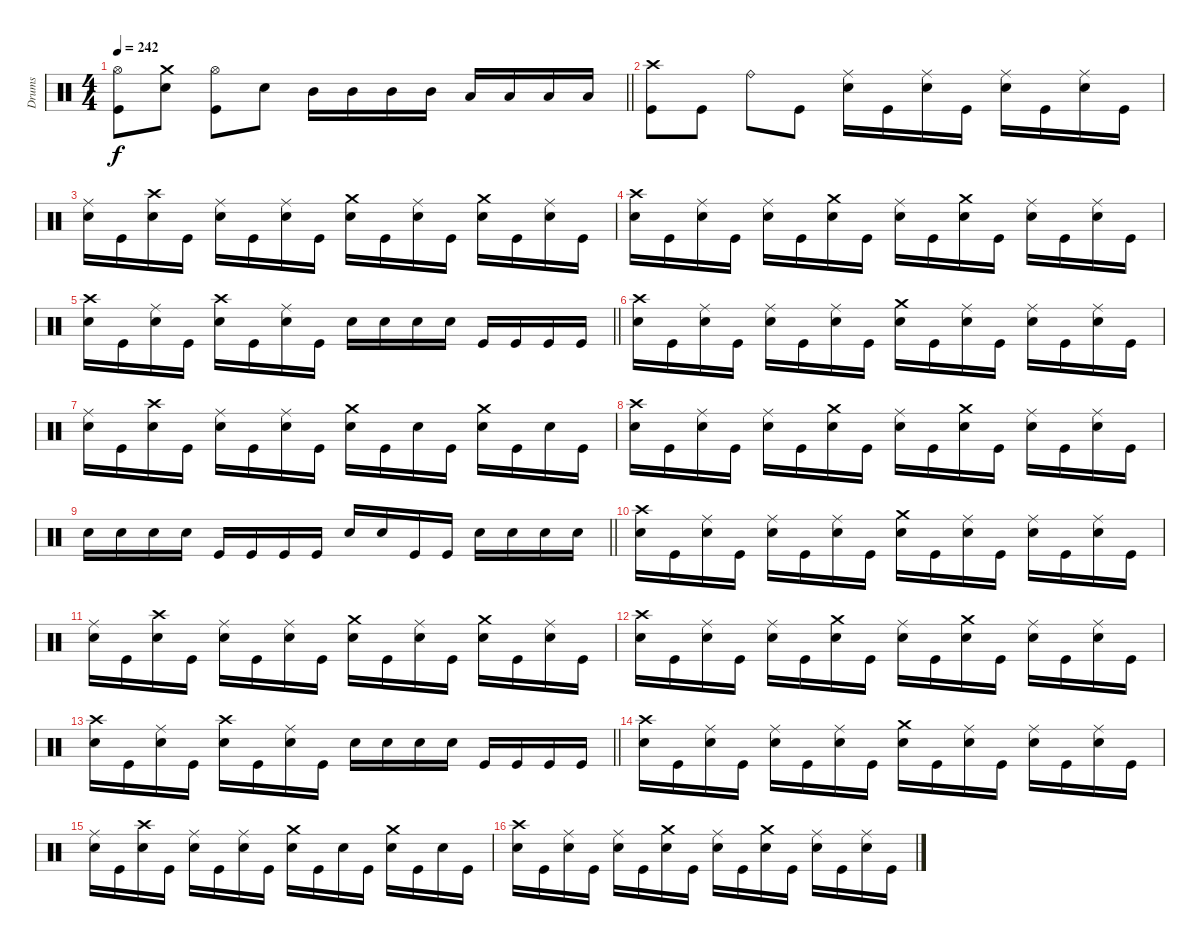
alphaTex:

\track ("Drums" "Drums") {instrument percussion}
\staff
\articulation defaults
\ts (4 4)
\tempo 242
\clef neutral
\barLineRight lightlight
\ks c
("Hi-Hat (open)" "Kick (hit)").8{dy f} ("Crash medium (hit)" "Electric Snare (hit)").8 ("Hi-Hat (open)" "Kick (hit)").8 "Electric Snare (hit)".8 "Mid Tom (hit)".16 "Mid Tom (hit)".16 "Mid Tom (hit)".16 "Mid Tom (hit)".16 "Low Tom (hit)".16 "Low Tom (hit)".16 "Low Tom (hit)".16 "Low Tom (hit)".16 |
\section ("" "")
("Crash high (hit)" "Kick (hit)").8 "Kick (hit)".8 "Ride (bell)".8 "Kick (hit)".8 ("Ride (middle)" "Electric Snare (hit)").16 "Kick (hit)".16 ("Ride (middle)" "Electric Snare (hit)").16 "Kick (hit)".16 ("Ride (middle)" "Electric Snare (hit)").16 "Kick (hit)".16 ("Ride (middle)" "Electric Snare (hit)").16 "Kick (hit)".16 |
("Ride (middle)" "Electric Snare (hit)").16 "Kick (hit)".16 ("Crash high (hit)" "Electric Snare (hit)").16 "Kick (hit)".16 ("Ride (middle)" "Electric Snare (hit)").16 "Kick (hit)".16 ("Ride (middle)" "Electric Snare (hit)").16 "Kick (hit)".16 ("Crash medium (hit)" "Electric Snare (hit)").16 "Kick (hit)".16 ("Ride (middle)" "Electric Snare (hit)").16 "Kick (hit)".16 ("Crash medium (hit)" "Electric Snare (hit)").16 "Kick (hit)".16 ("Ride (middle)" "Electric Snare (hit)").16 "Kick (hit)".16 |
("Crash high (hit)" "Electric Snare (hit)").16 "Kick (hit)".16 ("Ride (middle)" "Electric Snare (hit)").16 "Kick (hit)".16 ("Ride (middle)" "Electric Snare (hit)").16 "Kick (hit)".16 ("Crash medium (hit)" "Electric Snare (hit)").16 "Kick (hit)".16 ("Ride (middle)" "Electric Snare (hit)").16 "Kick (hit)".16 ("Crash medium (hit)" "Electric Snare (hit)").16 "Kick (hit)".16 ("Ride (middle)" "Electric Snare (hit)").16 "Kick (hit)".16 ("Ride (middle)" "Electric Snare (hit)").16 "Kick (hit)".16 |
\barLineRight lightlight
("Crash high (hit)" "Electric Snare (hit)").16 "Kick (hit)".16 ("Ride (middle)" "Electric Snare (hit)").16 "Kick (hit)".16 ("Crash high (hit)" "Electric Snare (hit)").16 "Kick (hit)".16 ("Ride (middle)" "Electric Snare (hit)").16 "Kick (hit)".16 "Electric Snare (hit)".16 "Electric Snare (hit)".16 "Electric Snare (hit)".16 "Electric Snare (hit)".16 "Kick (hit)".16 "Kick (hit)".16 "Kick (hit)".16 "Kick (hit)".16 |
("Crash high (hit)" "Electric Snare (hit)").16 "Kick (hit)".16 ("Ride (middle)" "Electric Snare (hit)").16 "Kick (hit)".16 ("Ride (middle)" "Electric Snare (hit)").16 "Kick (hit)".16 ("Ride (middle)" "Electric Snare (hit)").16 "Kick (hit)".16 ("Crash medium (hit)" "Electric Snare (hit)").16 "Kick (hit)".16 ("Ride (middle)" "Electric Snare (hit)").16 "Kick (hit)".16 ("Ride (middle)" "Electric Snare (hit)").16 "Kick (hit)".16 ("Ride (middle)" "Electric Snare (hit)").16 "Kick (hit)".16 |
("Ride (middle)" "Electric Snare (hit)").16 "Kick (hit)".16 ("Crash high (hit)" "Electric Snare (hit)").16 "Kick (hit)".16 ("Ride (middle)" "Electric Snare (hit)").16 "Kick (hit)".16 ("Ride (middle)" "Electric Snare (hit)").16 "Kick (hit)".16 ("Crash medium (hit)" "Electric Snare (hit)").16 "Kick (hit)".16 "Electric Snare (hit)".16 "Kick (hit)".16 ("Crash medium (hit)" "Electric Snare (hit)").16 "Kick (hit)".16 "Electric Snare (hit)".16 "Kick (hit)".16 |
("Crash high (hit)" "Electric Snare (hit)").16 "Kick (hit)".16 ("Ride (middle)" "Electric Snare (hit)").16 "Kick (hit)".16 ("Ride (middle)" "Electric Snare (hit)").16 "Kick (hit)".16 ("Crash medium (hit)" "Electric Snare (hit)").16 "Kick (hit)".16 ("Ride (middle)" "Electric Snare (hit)").16 "Kick (hit)".16 ("Crash medium (hit)" "Electric Snare (hit)").16 "Kick (hit)".16 ("Ride (middle)" "Electric Snare (hit)").16 "Kick (hit)".16 ("Ride (middle)" "Electric Snare (hit)").16 "Kick (hit)".16 |
\barLineRight lightlight "Electric Snare (hit)".16 "Electric Snare (hit)".16 "Electric Snare (hit)".16 "Electric Snare (hit)".16 "Kick (hit)".16 "Kick (hit)".16 "Kick (hit)".16 "Kick (hit)".16 "Electric Snare (hit)".16 "Electric Snare (hit)".16 "Kick (hit)".16 "Kick (hit)".16 "Electric Snare (hit)".16 "Electric Snare (hit)".16 "Electric Snare (hit)".16 "Electric Snare (hit)".16
|
("Crash high (hit)" "Electric Snare (hit)").16 "Kick (hit)".16 ("Ride (middle)" "Electric Snare (hit)").16 "Kick (hit)".16 ("Ride (middle)" "Electric Snare (hit)").16 "Kick (hit)".16 ("Ride (middle)" "Electric Snare (hit)").16 "Kick (hit)".16 ("Crash medium (hit)" "Electric Snare (hit)").16 "Kick (hit)".16 ("Ride (middle)" "Electric Snare (hit)").16 "Kick (hit)".16 ("Ride (middle)" "Electric Snare (hit)").16 "Kick (hit)".16 ("Ride (middle)" "Electric Snare (hit)").16 "Kick (hit)".16 |
("Ride (middle)" "Electric Snare (hit)").16 "Kick (hit)".16 ("Crash high (hit)" "Electric Snare (hit)").16 "Kick (hit)".16 ("Ride (middle)" "Electric Snare (hit)").16 "Kick (hit)".16 ("Ride (middle)" "Electric Snare (hit)").16 "Kick (hit)".16 ("Crash medium (hit)" "Electric Snare (hit)").16 "Kick (hit)".16 ("Ride (middle)" "Electric Snare (hit)").16 "Kick (hit)".16 ("Crash medium (hit)" "Electric Snare (hit)").16 "Kick (hit)".16 ("Ride (middle)" "Electric Snare (hit)").16 "Kick (hit)".16 |
("Crash high (hit)" "Electric Snare (hit)").16 "Kick (hit)".16 ("Ride (middle)" "Electric Snare (hit)").16 "Kick (hit)".16 ("Ride (middle)" "Electric Snare (hit)").16 "Kick (hit)".16 ("Crash medium (hit)" "Electric Snare (hit)").16 "Kick (hit)".16 ("Ride (middle)" "Electric Snare (hit)").16 "Kick (hit)".16 ("Crash medium (hit)" "Electric Snare (hit)").16 "Kick (hit)".16 ("Ride (middle)" "Electric Snare (hit)").16 "Kick (hit)".16 ("Ride (middle)" "Electric Snare (hit)").16 "Kick (hit)".16 |
\barLineRight lightlight
("Crash high (hit)" "Electric Snare (hit)").16 "Kick (hit)".16 ("Ride (middle)" "Electric Snare (hit)").16 "Kick (hit)".16 ("Crash high (hit)" "Electric Snare (hit)").16 "Kick (hit)".16 ("Ride (middle)" "Electric Snare (hit)").16 "Kick (hit)".16 "Electric Snare (hit)".16 "Electric Snare (hit)".16 "Electric Snare (hit)".16 "Electric Snare (hit)".16 "Kick (hit)".16 "Kick (hit)".16 "Kick (hit)".16 "Kick (hit)".16 |
("Crash high (hit)" "Electric Snare (hit)").16 "Kick (hit)".16 ("Ride (middle)" "Electric Snare (hit)").16 "Kick (hit)".16 ("Ride (middle)" "Electric Snare (hit)").16 "Kick (hit)".16 ("Ride (middle)" "Electric Snare (hit)").16 "Kick (hit)".16 ("Crash medium (hit)" "Electric Snare (hit)").16 "Kick (hit)".16 ("Ride (middle)" "Electric Snare (hit)").16 "Kick (hit)".16 ("Ride (middle)" "Electric Snare (hit)").16 "Kick (hit)".16 ("Ride (middle)" "Electric Snare (hit)").16 "Kick (hit)".16 |
("Ride (middle)" "Electric Snare (hit)").16 "Kick (hit)".16 ("Crash high (hit)" "Electric Snare (hit)").16 "Kick (hit)".16 ("Ride (middle)" "Electric Snare (hit)").16 "Kick (hit)".16 ("Ride (middle)" "Electric Snare (hit)").16 "Kick (hit)".16 ("Crash medium (hit)" "Electric Snare (hit)").16 "Kick (hit)".16 "Electric Snare (hit)".16 "Kick (hit)".16 ("Crash medium (hit)" "Electric Snare (hit)").16 "Kick (hit)".16 "Electric Snare (hit)".16 "Kick (hit)".16 |
("Crash high (hit)" "Electric Snare (hit)").16 "Kick (hit)".16 ("Ride (middle)" "Electric Snare (hit)").16 "Kick (hit)".16 ("Ride (middle)" "Electric Snare (hit)").16 "Kick (hit)".16 ("Crash medium (hit)" "Electric Snare (hit)").16 "Kick (hit)".16 ("Ride (middle)" "Electric Snare (hit)").16 "Kick (hit)".16 ("Crash medium (hit)" "Electric Snare (hit)").16 "Kick (hit)".16 ("Ride (middle)" "Electric Snare (hit)").16 "Kick (hit)".16 ("Ride (middle)" "Electric Snare (hit)").16 "Kick (hit)".16
